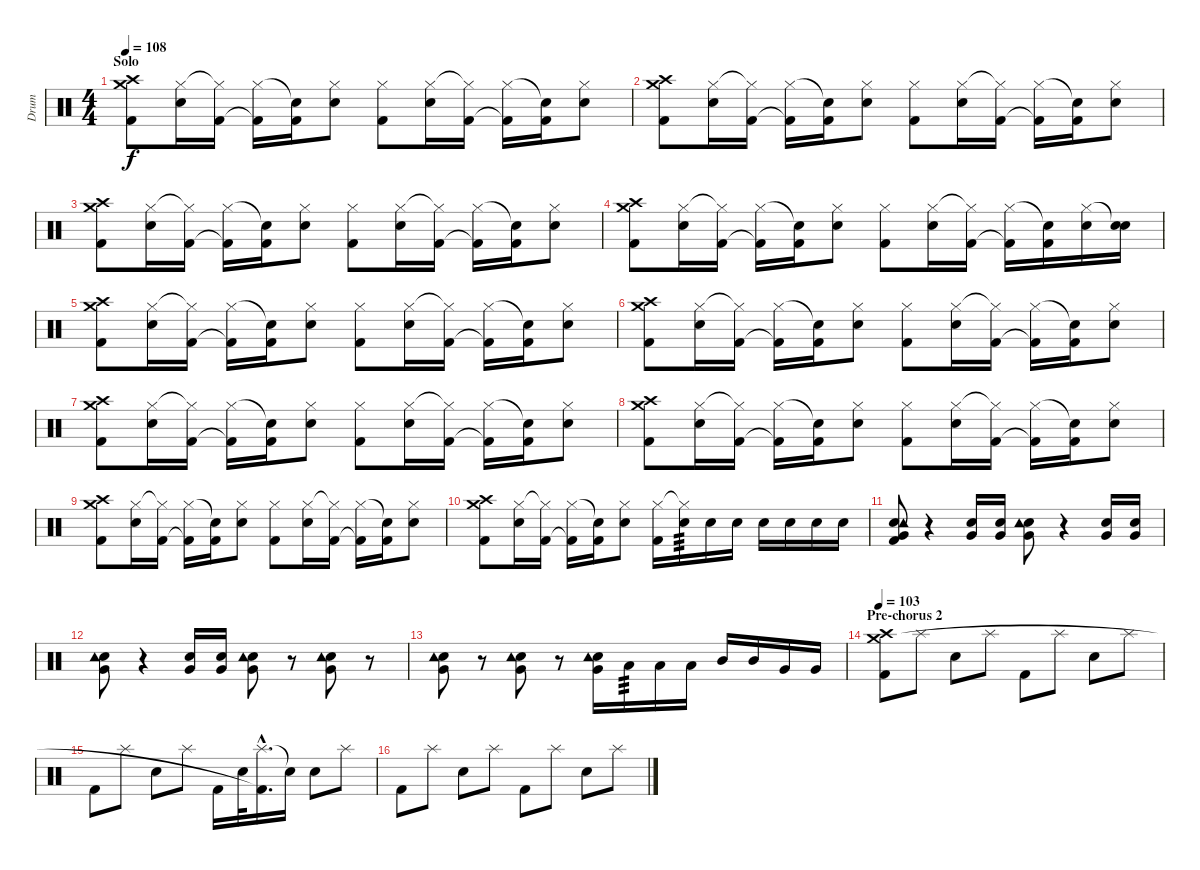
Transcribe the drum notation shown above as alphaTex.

\track ("Drum" "Drum") {instrument percussion}
\staff {score}
\articulation defaults
\ts (4 4)
\section ("" "Solo")
\tempo 108
\clef neutral
\ks c
("Crash medium (hit)" "Crash high (hit)" "Kick (hit) 2").8{dy f} ("Hi-Hat (closed)" "Electric Snare (hit)").16 ("Hi-Hat (closed)"{t} "Kick (hit) 2").16 ("Hi-Hat (closed)" "Kick (hit) 2"{t}).16 ("Snare (hit)"{t} "Kick (hit) 2").16 ("Hi-Hat (closed)" "Electric Snare (hit)").8 ("Hi-Hat (closed)" "Kick (hit) 2").8 ("Hi-Hat (closed)" "Electric Snare (hit)").16 ("Hi-Hat (closed)"{t} "Kick (hit) 2").16 ("Hi-Hat (closed)" "Kick (hit) 2"{t}).16 ("Snare (hit)"{t} "Kick (hit) 2").16 ("Hi-Hat (closed)" "Electric Snare (hit)").8 |
("Crash medium (hit)" "Crash high (hit)" "Kick (hit) 2").8 ("Hi-Hat (closed)" "Electric Snare (hit)").16 ("Hi-Hat (closed)"{t} "Kick (hit) 2").16 ("Hi-Hat (closed)" "Kick (hit) 2"{t}).16 ("Snare (hit)"{t} "Kick (hit) 2").16 ("Hi-Hat (closed)" "Electric Snare (hit)").8 ("Hi-Hat (closed)" "Kick (hit) 2").8 ("Hi-Hat (closed)" "Electric Snare (hit)").16 ("Hi-Hat (closed)"{t} "Kick (hit) 2").16 ("Hi-Hat (closed)" "Kick (hit) 2"{t}).16 ("Snare (hit)"{t} "Kick (hit) 2").16 ("Hi-Hat (closed)" "Electric Snare (hit)").8 |
("Crash medium (hit)" "Crash high (hit)" "Kick (hit) 2").8 ("Hi-Hat (closed)" "Electric Snare (hit)").16 ("Hi-Hat (closed)"{t} "Kick (hit) 2").16 ("Hi-Hat (closed)" "Kick (hit) 2"{t}).16 ("Snare (hit)"{t} "Kick (hit) 2").16 ("Hi-Hat (closed)" "Electric Snare (hit)").8 ("Hi-Hat (closed)" "Kick (hit) 2").8 ("Hi-Hat (closed)" "Electric Snare (hit)").16 ("Hi-Hat (closed)"{t} "Kick (hit) 2").16 ("Hi-Hat (closed)" "Kick (hit) 2"{t}).16 ("Snare (hit)"{t} "Kick (hit) 2").16 ("Hi-Hat (closed)" "Electric Snare (hit)").8 |
("Crash medium (hit)" "Crash high (hit)" "Kick (hit) 2").8 ("Hi-Hat (closed)" "Electric Snare (hit)").16 ("Hi-Hat (closed)"{t} "Kick (hit) 2").16 ("Hi-Hat (closed)" "Kick (hit) 2"{t}).16 ("Snare (hit)"{t} "Kick (hit) 2").16 ("Hi-Hat (closed)" "Electric Snare (hit)").8 ("Hi-Hat (closed)" "Kick (hit) 2").8 ("Hi-Hat (closed)" "Electric Snare (hit)").16 ("Hi-Hat (closed)"{t} "Kick (hit) 2").16 ("Hi-Hat (closed)" "Kick (hit) 2"{t}).16 ("Snare (hit)"{t} "Kick (hit) 2").16 ("Hi-Hat (closed)" "Electric Snare (hit)").16 ("Snare (hit)"{t} "Electric Snare (hit)").16 |
("Crash medium (hit)" "Crash high (hit)" "Kick (hit) 2").8 ("Hi-Hat (closed)" "Electric Snare (hit)").16 ("Hi-Hat (closed)"{t} "Kick (hit) 2").16 ("Hi-Hat (closed)" "Kick (hit) 2"{t}).16 ("Snare (hit)"{t} "Kick (hit) 2").16 ("Hi-Hat (closed)" "Electric Snare (hit)").8 ("Hi-Hat (closed)" "Kick (hit) 2").8 ("Hi-Hat (closed)" "Electric Snare (hit)").16 ("Hi-Hat (closed)"{t} "Kick (hit) 2").16 ("Hi-Hat (closed)" "Kick (hit) 2"{t}).16 ("Snare (hit)"{t} "Kick (hit) 2").16 ("Hi-Hat (closed)" "Electric Snare (hit)").8 |
("Crash medium (hit)" "Crash high (hit)" "Kick (hit) 2").8 ("Hi-Hat (closed)" "Electric Snare (hit)").16 ("Hi-Hat (closed)"{t} "Kick (hit) 2").16 ("Hi-Hat (closed)" "Kick (hit) 2"{t}).16 ("Snare (hit)"{t} "Kick (hit) 2").16 ("Hi-Hat (closed)" "Electric Snare (hit)").8 ("Hi-Hat (closed)" "Kick (hit) 2").8 ("Hi-Hat (closed)" "Electric Snare (hit)").16 ("Hi-Hat (closed)"{t} "Kick (hit) 2").16 ("Hi-Hat (closed)" "Kick (hit) 2"{t}).16 ("Snare (hit)"{t} "Kick (hit) 2").16 ("Hi-Hat (closed)" "Electric Snare (hit)").8 |
("Crash medium (hit)" "Crash high (hit)" "Kick (hit) 2").8 ("Hi-Hat (closed)" "Electric Snare (hit)").16 ("Hi-Hat (closed)"{t} "Kick (hit) 2").16 ("Hi-Hat (closed)" "Kick (hit) 2"{t}).16 ("Snare (hit)"{t} "Kick (hit) 2").16 ("Hi-Hat (closed)" "Electric Snare (hit)").8 ("Hi-Hat (closed)" "Kick (hit) 2").8 ("Hi-Hat (closed)" "Electric Snare (hit)").16 ("Hi-Hat (closed)"{t} "Kick (hit) 2").16 ("Hi-Hat (closed)" "Kick (hit) 2"{t}).16 ("Snare (hit)"{t} "Kick (hit) 2").16 ("Hi-Hat (closed)" "Electric Snare (hit)").8 |
("Crash medium (hit)" "Crash high (hit)" "Kick (hit) 2").8 ("Hi-Hat (closed)" "Electric Snare (hit)").16 ("Hi-Hat (closed)"{t} "Kick (hit) 2").16 ("Hi-Hat (closed)" "Kick (hit) 2"{t}).16 ("Snare (hit)"{t} "Kick (hit) 2").16 ("Hi-Hat (closed)" "Electric Snare (hit)").8 ("Hi-Hat (closed)" "Kick (hit) 2").8 ("Hi-Hat (closed)" "Electric Snare (hit)").16 ("Hi-Hat (closed)"{t} "Kick (hit) 2").16 ("Hi-Hat (closed)" "Kick (hit) 2"{t}).16 ("Snare (hit)"{t} "Kick (hit) 2").16 ("Hi-Hat (closed)" "Electric Snare (hit)").8 |
("Crash medium (hit)" "Crash high (hit)" "Kick (hit) 2").8 ("Hi-Hat (closed)" "Electric Snare (hit)").16 ("Hi-Hat (closed)"{t} "Kick (hit) 2").16 ("Hi-Hat (closed)" "Kick (hit) 2"{t}).16 ("Snare (hit)"{t} "Kick (hit) 2").16 ("Hi-Hat (closed)" "Electric Snare (hit)").8 ("Hi-Hat (closed)" "Kick (hit) 2").8 ("Hi-Hat (closed)" "Electric Snare (hit)").16 ("Hi-Hat (closed)"{t} "Kick (hit) 2").16 ("Hi-Hat (closed)" "Kick (hit) 2"{t}).16 ("Snare (hit)"{t} "Kick (hit) 2").16 ("Hi-Hat (closed)" "Electric Snare (hit)").8 |
("Crash medium (hit)" "Crash high (hit)" "Kick (hit) 2").8 ("Hi-Hat (closed)" "Electric Snare (hit)").16 ("Hi-Hat (closed)"{t} "Kick (hit) 2").16 ("Hi-Hat (closed)" "Kick (hit) 2"{t}).16 ("Snare (hit)"{t} "Kick (hit) 2").16 ("Hi-Hat (closed)" "Electric Snare (hit)").8 ("Hi-Hat (closed)" "Kick (hit) 2").16 ("Hi-Hat (closed)"{t} "Electric Snare (hit)").16{tp 3} "Electric Snare (hit)".16 "Electric Snare (hit)".16 "Electric Snare (hit)".16 "Electric Snare (hit)".16 "Electric Snare (hit)".16 "Electric Snare (hit)".16 |
("Very Low Tom (hit)" "Electric Snare (hit)" "Kick (hit) 2" "Tambourine (hit)").8 r.4 ("Very Low Tom (hit)" "Electric Snare (hit)").16 ("Very Low Tom (hit)" "Electric Snare (hit)").16 ("Very Low Tom (hit)" "Electric Snare (hit)" "Tambourine (hit)").8 r.4 ("Very Low Tom (hit)" "Electric Snare (hit)").16 ("Very Low Tom (hit)" "Electric Snare (hit)").16 |
("Very Low Tom (hit)" "Electric Snare (hit)" "Tambourine (hit)").8 r.4 ("Very Low Tom (hit)" "Electric Snare (hit)").16 ("Very Low Tom (hit)" "Electric Snare (hit)").16 ("Very Low Tom (hit)" "Electric Snare (hit)" "Tambourine (hit)").8 r.8 ("Very Low Tom (hit)" "Electric Snare (hit)" "Tambourine (hit)").8 r.8 |
("Very Low Tom (hit)" "Electric Snare (hit)" "Tambourine (hit)").8 r.8 ("Very Low Tom (hit)" "Electric Snare (hit)" "Tambourine (hit)").8 r.8 ("Very Low Tom (hit)" "Electric Snare (hit)" "Tambourine (hit)").16 "Low Tom (hit)".16{tp 3} "Low Tom (hit)".16 "Low Tom (hit)".16 "Mid Tom (hit)".16 "Mid Tom (hit)".16 "Very Low Tom (hit)".16 "Very Low Tom (hit)".16 |
\section ("" "Pre-chorus 2")
\tempo 103
("Crash high (hit)" "Crash medium (hit)" "Kick (hit) 2").8 "Splash (hit)".8 "Electric Snare (hit)".8 "Splash (hit)".8 "Kick (hit) 2".8 "Splash (hit)".8 "Electric Snare (hit)".8 "Splash (hit)".8 |
"Kick (hit) 2".8 "Splash (hit)".8 "Electric Snare (hit)".8 "Splash (hit)".8 "Kick (hit) 2".16 "Electric Snare (hit)".32 ("Splash (hit)"{hac} "Kick (hit) 2"{hac t}).16{d} "Electric Snare (hit)"{t}.16 "Electric Snare (hit)".8 "Splash (hit)".8 |
"Kick (hit) 2".8 "Splash (hit)".8 "Electric Snare (hit)".8 "Splash (hit)".8 "Kick (hit) 2".8 "Splash (hit)".8 "Electric Snare (hit)".8 "Splash (hit)".8
